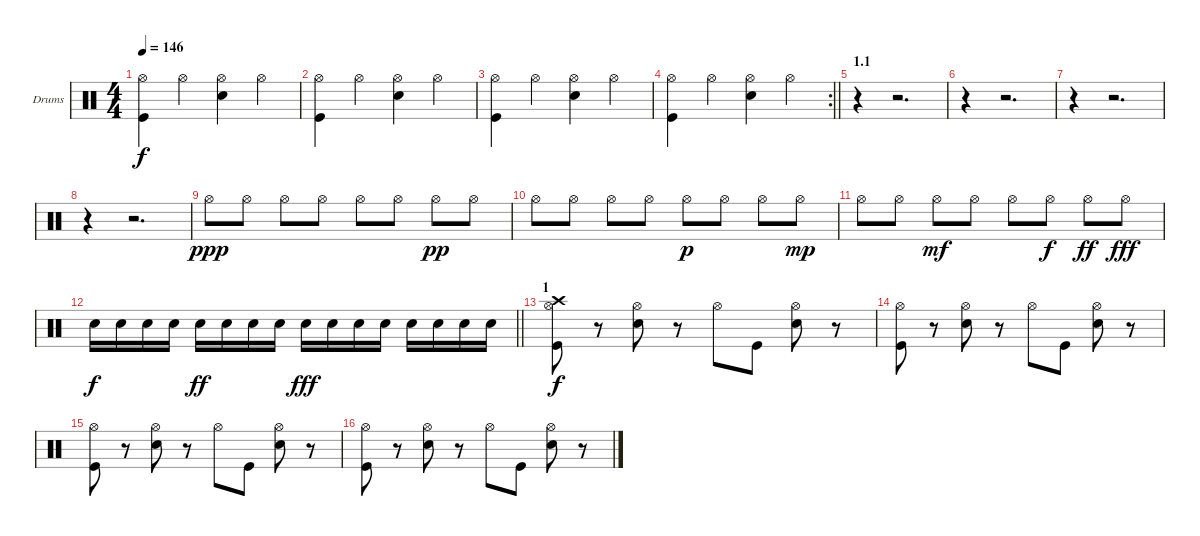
\bracketExtendMode groupsimilarinstruments
\firstSystemTrackNameOrientation horizontal
\otherSystemsTrackNameOrientation horizontal
\track ("Drumkit" "Drums") {instrument percussion}
\staff {score}
\articulation defaults
\ts (4 4)
\tempo 146
\clef neutral
\ks c
("Hi-Hat (open)" "Kick (hit)").4{dy f} "Hi-Hat (open)".4 ("Hi-Hat (open)" "Snare (hit) 2").4 "Hi-Hat (open)".4 |
("Hi-Hat (open)" "Kick (hit)").4 "Hi-Hat (open)".4 ("Hi-Hat (open)" "Snare (hit) 2").4 "Hi-Hat (open)".4 |
("Hi-Hat (open)" "Kick (hit)").4 "Hi-Hat (open)".4 ("Hi-Hat (open)" "Snare (hit) 2").4 "Hi-Hat (open)".4 |
\rc 2
\barLineRight lightlight
("Hi-Hat (open)" "Kick (hit)").4 "Hi-Hat (open)".4 ("Hi-Hat (open)" "Snare (hit) 2").4 "Hi-Hat (open)".4 |
\section ("" "1.1")
r.4 r.2{d} |
r.4 r.2{d} |
r.4 r.2{d} |
r.4 r.2{d} |
"Hi-Hat (open)".8{dy ppp} "Hi-Hat (open)".8 "Hi-Hat (open)".8 "Hi-Hat (open)".8 "Hi-Hat (open)".8 "Hi-Hat (open)".8 "Hi-Hat (open)".8{dy pp} "Hi-Hat (open)".8 |
"Hi-Hat (open)".8 "Hi-Hat (open)".8 "Hi-Hat (open)".8 "Hi-Hat (open)".8 "Hi-Hat (open)".8{dy p} "Hi-Hat (open)".8 "Hi-Hat (open)".8 "Hi-Hat (open)".8{dy mp} |
"Hi-Hat (open)".8 "Hi-Hat (open)".8 "Hi-Hat (open)".8{dy mf} "Hi-Hat (open)".8 "Hi-Hat (open)".8 "Hi-Hat (open)".8{dy f} "Hi-Hat (open)".8{dy ff} "Hi-Hat (open)".8{dy fff} |
\barLineRight lightlight "Snare (hit) 2".16{dy f} "Snare (hit) 2".16 "Snare (hit) 2".16 "Snare (hit) 2".16 "Snare (hit) 2".16{dy ff} "Snare (hit) 2".16 "Snare (hit) 2".16 "Snare (hit) 2".16 "Snare (hit) 2".16{dy fff} "Snare (hit) 2".16 "Snare (hit) 2".16 "Snare (hit) 2".16 "Snare (hit) 2".16 "Snare (hit) 2".16 "Snare (hit) 2".16 "Snare (hit) 2".16
|
\section ("" "1")
("Crash high (hit)" "Hi-Hat (open)" "Kick (hit)").8{dy f} r.8 ("Hi-Hat (open)" "Snare (hit) 2").8 r.8 "Hi-Hat (open)".8 "Kick (hit)".8 ("Hi-Hat (open)" "Snare (hit) 2").8 r.8 |
("Hi-Hat (open)" "Kick (hit)").8 r.8 ("Hi-Hat (open)" "Snare (hit) 2").8 r.8 "Hi-Hat (open)".8 "Kick (hit)".8 ("Hi-Hat (open)" "Snare (hit) 2").8 r.8 |
("Hi-Hat (open)" "Kick (hit)").8 r.8 ("Hi-Hat (open)" "Snare (hit) 2").8 r.8 "Hi-Hat (open)".8 "Kick (hit)".8 ("Hi-Hat (open)" "Snare (hit) 2").8 r.8 |
("Hi-Hat (open)" "Kick (hit)").8 r.8 ("Hi-Hat (open)" "Snare (hit) 2").8 r.8 "Hi-Hat (open)".8 "Kick (hit)".8 ("Hi-Hat (open)" "Snare (hit) 2").8 r.8
